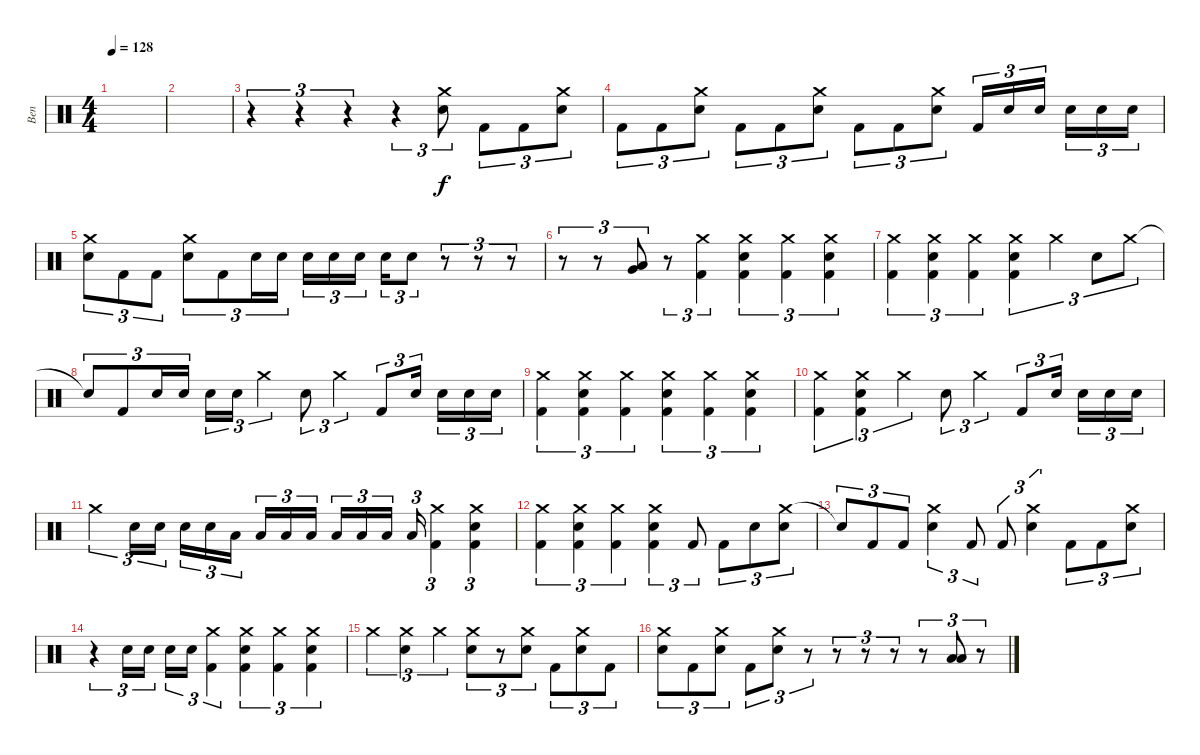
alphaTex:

\track ("Ben" "Ben") {instrument percussion}
\staff {score}
\articulation defaults
\ts (4 4)
\tempo 128
\clef neutral
\ks c
|
|
r.4{tu (3 2)} r.4{tu (3 2)} r.4{tu (3 2)} r.4{tu (3 2)} ("Crash medium (hit)" "Electric Snare (hit)").8{tu (3 2)} "Kick (hit) 2".8{tu (3 2)} "Kick (hit) 2".8{tu (3 2)} ("Crash medium (hit)" "Electric Snare (hit)").8{tu (3 2)} |
"Kick (hit) 2".8{tu (3 2)} "Kick (hit) 2".8{tu (3 2)} ("Crash medium (hit)" "Electric Snare (hit)").8{tu (3 2)} "Kick (hit) 2".8{tu (3 2)} "Kick (hit) 2".8{tu (3 2)} ("Crash medium (hit)" "Electric Snare (hit)").8{tu (3 2)} "Kick (hit) 2".8{tu (3 2)} "Kick (hit) 2".8{tu (3 2)} ("Crash medium (hit)" "Electric Snare (hit)").8{tu (3 2)} "Kick (hit) 2".16{tu (3 2)} "Electric Snare (hit)".16{tu (3 2)} "Electric Snare (hit)".16{tu (3 2)} "Electric Snare (hit)".16{tu (3 2)} "Electric Snare (hit)".16{tu (3 2)} "Electric Snare (hit)".16{tu (3 2)} |
("Crash medium (hit)" "Electric Snare (hit)").8{tu (3 2)} "Kick (hit) 2".8{tu (3 2)} "Kick (hit) 2".8{tu (3 2)} ("Crash medium (hit)" "Electric Snare (hit)").8{tu (3 2)} "Kick (hit) 2".8{tu (3 2)} "Electric Snare (hit)".16{tu (3 2)} "Electric Snare (hit)".16{tu (3 2)} "Electric Snare (hit)".16{tu (3 2)} "Electric Snare (hit)".16{tu (3 2)} "Electric Snare (hit)".16{tu (3 2)} "Electric Snare (hit)".16{tu (3 2)} "Electric Snare (hit)".8{tu (3 2)} r.8{tu (3 2)} r.8{tu (3 2)} r.8{tu (3 2)} |
r.8{tu (3 2)} r.8{tu (3 2)} ("Low Tom (hit)" "Very Low Tom (hit)").8{tu (3 2)} r.8{tu (3 2)} ("Crash medium (hit)" "Kick (hit) 2").4{tu (3 2)} ("Crash medium (hit)" "Electric Snare (hit)" "Kick (hit) 2").4{tu (3 2)} ("Crash medium (hit)" "Kick (hit) 2").4{tu (3 2)} ("Crash medium (hit)" "Electric Snare (hit)" "Kick (hit) 2").4{tu (3 2)} |
("Crash medium (hit)" "Kick (hit) 2").4{tu (3 2)} ("Crash medium (hit)" "Electric Snare (hit)" "Kick (hit) 2").4{tu (3 2)} ("Crash medium (hit)" "Kick (hit) 2").4{tu (3 2)} ("Crash medium (hit)" "Electric Snare (hit)" "Kick (hit) 2").4{tu (3 2)} "Crash medium (hit)".4{tu (3 2)} "Electric Snare (hit)".8{tu (3 2)} "Crash medium (hit)".8{tu (3 2)} |
"Snare (hit)"{t}.8{tu (3 2)} "Kick (hit) 2".8{tu (3 2)} "Electric Snare (hit)".16{tu (3 2)} "Electric Snare (hit)".16{tu (3 2)} "Electric Snare (hit)".16{tu (3 2)} "Electric Snare (hit)".16{tu (3 2)} "Crash medium (hit)".4{tu (3 2)} "Electric Snare (hit)".8{tu (3 2)} "Crash medium (hit)".4{tu (3 2)} "Kick (hit) 2".8{tu (3 2)} "Electric Snare (hit)".16{tu (3 2)} "Electric Snare (hit)".16{tu (3 2)} "Electric Snare (hit)".16{tu (3 2)} "Electric Snare (hit)".16{tu (3 2)} |
("Crash medium (hit)" "Kick (hit) 2").4{tu (3 2)} ("Crash medium (hit)" "Electric Snare (hit)" "Kick (hit) 2").4{tu (3 2)} ("Crash medium (hit)" "Kick (hit) 2").4{tu (3 2)} ("Crash medium (hit)" "Electric Snare (hit)" "Kick (hit) 2").4{tu (3 2)} ("Crash medium (hit)" "Kick (hit) 2").4{tu (3 2)} ("Crash medium (hit)" "Electric Snare (hit)" "Kick (hit) 2").4{tu (3 2)} |
("Crash medium (hit)" "Kick (hit) 2").4{tu (3 2)} ("Crash medium (hit)" "Electric Snare (hit)" "Kick (hit) 2").4{tu (3 2)} "Crash medium (hit)".4{tu (3 2)} "Electric Snare (hit)".8{tu (3 2)} "Crash medium (hit)".4{tu (3 2)} "Kick (hit) 2".8{tu (3 2)} "Electric Snare (hit)".16{tu (3 2)} "Electric Snare (hit)".16{tu (3 2)} "Electric Snare (hit)".16{tu (3 2)} "Electric Snare (hit)".16{tu (3 2)} |
"Crash medium (hit)".4{tu (3 2)} "Electric Snare (hit)".16{tu (3 2)} "Electric Snare (hit)".16{tu (3 2)} "Electric Snare (hit)".16{tu (3 2)} "Electric Snare (hit)".16{tu (3 2)} "Low Tom (hit)".16{tu (3 2)} "Low Tom (hit)".16{tu (3 2)} "Low Tom (hit)".16{tu (3 2)} "Low Tom (hit)".16{tu (3 2)} "Low Floor Tom (hit)".16{tu (3 2)} "Low Floor Tom (hit)".16{tu (3 2)} "Low Floor Tom (hit)".16{tu (3 2)} "Low Floor Tom (hit)".16{tu (3 2)} ("Crash medium (hit)" "Kick (hit) 2").4{tu (3 2)} ("Crash medium (hit)" "Electric Snare (hit)" "Kick (hit) 2").4{tu (3 2)} |
("Crash medium (hit)" "Kick (hit) 2").4{tu (3 2)} ("Crash medium (hit)" "Electric Snare (hit)" "Kick (hit) 2").4{tu (3 2)} ("Crash medium (hit)" "Kick (hit) 2").4{tu (3 2)} ("Crash medium (hit)" "Electric Snare (hit)" "Kick (hit) 2").4{tu (3 2)} "Kick (hit) 2".8{tu (3 2)} "Kick (hit) 2".8{tu (3 2)} "Electric Snare (hit)".8{tu (3 2)} ("Crash medium (hit)" "Electric Snare (hit)").8{tu (3 2)} |
"Snare (hit)"{t}.8{tu (3 2)} "Kick (hit) 2".8{tu (3 2)} "Kick (hit) 2".8{tu (3 2)} ("Crash medium (hit)" "Electric Snare (hit)").4{tu (3 2)} "Kick (hit) 2".8{tu (3 2)} "Kick (hit) 2".8{tu (3 2)} ("Crash medium (hit)" "Electric Snare (hit)").4{tu (3 2)} "Kick (hit) 2".8{tu (3 2)} "Kick (hit) 2".8{tu (3 2)} ("Crash medium (hit)" "Electric Snare (hit)").8{tu (3 2)} |
r.4{tu (3 2)} "Electric Snare (hit)".16{tu (3 2)} "Electric Snare (hit)".16{tu (3 2)} "Electric Snare (hit)".16{tu (3 2)} "Electric Snare (hit)".16{tu (3 2)} ("Crash medium (hit)" "Kick (hit) 2").4{tu (3 2)} ("Crash medium (hit)" "Electric Snare (hit)" "Kick (hit) 2").4{tu (3 2)} ("Crash medium (hit)" "Kick (hit) 2").4{tu (3 2)} ("Crash medium (hit)" "Electric Snare (hit)" "Kick (hit) 2").4{tu (3 2)} |
"Crash medium (hit)".4{tu (3 2)} ("Crash medium (hit)" "Electric Snare (hit)").4{tu (3 2)} "Crash medium (hit)".4{tu (3 2)} ("Crash medium (hit)" "Electric Snare (hit)").8{tu (3 2)} r.8{tu (3 2)} ("Crash medium (hit)" "Electric Snare (hit)").8{tu (3 2)} "Kick (hit) 2".8{tu (3 2)} ("Crash medium (hit)" "Electric Snare (hit)").8{tu (3 2)} "Kick (hit) 2".8{tu (3 2)} |
("Crash medium (hit)" "Electric Snare (hit)").8{tu (3 2)} "Kick (hit) 2".8{tu (3 2)} ("Crash medium (hit)" "Electric Snare (hit)").8{tu (3 2)} "Kick (hit) 2".8{tu (3 2)} ("Crash medium (hit)" "Electric Snare (hit)").8{tu (3 2)} r.8{tu (3 2)} r.8{tu (3 2)} r.8{tu (3 2)} r.8{tu (3 2)} r.8{tu (3 2)} ("Low Floor Tom (hit)" "Low Tom (hit)").8{tu (3 2)} r.8{tu (3 2)}
